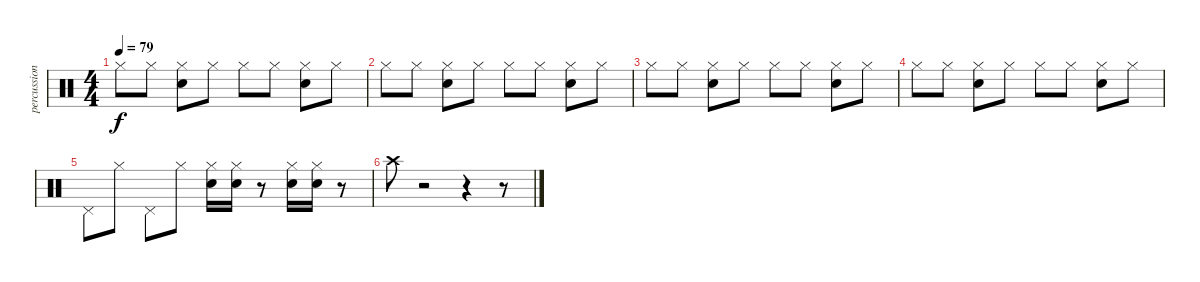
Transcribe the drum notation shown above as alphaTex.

\track ("percussion" "percussion") {instrument percussion}
\staff {score}
\articulation defaults
\ts (4 4)
\tempo 79
\clef neutral
\ks c "Hi-Hat (closed)".8{dy f} "Hi-Hat (closed)".8
("Hi-Hat (closed)" "Snare (hit) 2").8 "Hi-Hat (closed)".8 "Hi-Hat (closed)".8 "Hi-Hat (closed)".8 ("Hi-Hat (closed)" "Snare (hit) 2").8 "Hi-Hat (closed)".8 |
"Hi-Hat (closed)".8 "Hi-Hat (closed)".8 ("Hi-Hat (closed)" "Snare (hit) 2").8 "Hi-Hat (closed)".8 "Hi-Hat (closed)".8 "Hi-Hat (closed)".8 ("Hi-Hat (closed)" "Snare (hit) 2").8 "Hi-Hat (closed)".8 |
"Hi-Hat (closed)".8 "Hi-Hat (closed)".8 ("Hi-Hat (closed)" "Snare (hit) 2").8 "Hi-Hat (closed)".8 "Hi-Hat (closed)".8 "Hi-Hat (closed)".8 ("Hi-Hat (closed)" "Snare (hit) 2").8 "Hi-Hat (closed)".8 |
"Hi-Hat (closed)".8 "Hi-Hat (closed)".8 ("Hi-Hat (closed)" "Snare (hit) 2").8 "Hi-Hat (closed)".8 "Hi-Hat (closed)".8 "Hi-Hat (closed)".8 ("Hi-Hat (closed)" "Snare (hit) 2").8 "Hi-Hat (closed)".8 |
"Pedal Hi-Hat (hit)".8 "Hi-Hat (closed)".8 "Pedal Hi-Hat (hit)".8 "Hi-Hat (closed)".8 ("Hi-Hat (closed)" "Snare (hit) 2").16 ("Hi-Hat (closed)" "Snare (hit) 2").16 r.8 ("Hi-Hat (closed)" "Snare (hit) 2").16 ("Hi-Hat (closed)" "Snare (hit) 2").16 r.8 |
"Crash high (hit)".8 r.2 r.4 r.8
